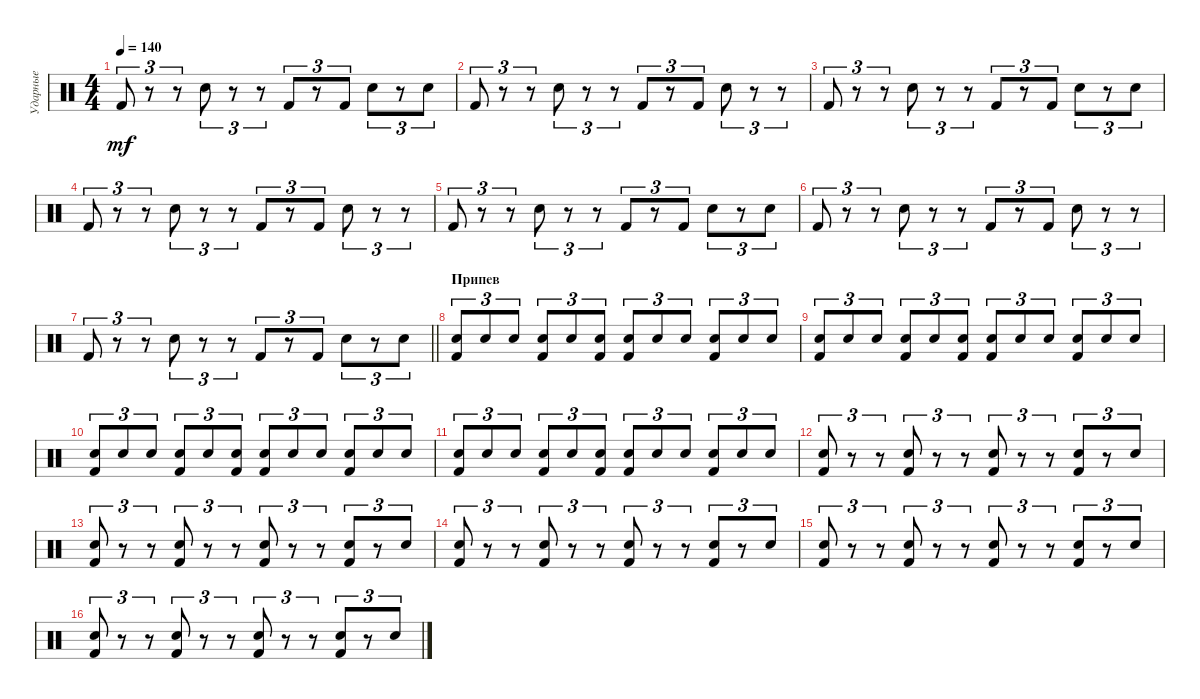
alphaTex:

\track ("Ударные" "Ударные") {instrument percussion}
\staff {score}
\articulation defaults
\ts (4 4)
\tempo 140
\clef neutral
\ks c "Kick (hit) 2".8{tu (3 2) dy mf}
r.8{tu (3 2)} r.8{tu (3 2)} "Electric Snare (hit)".8{tu (3 2)} r.8{tu (3 2)} r.8{tu (3 2)} "Kick (hit) 2".8{tu (3 2)} r.8{tu (3 2)} "Kick (hit) 2".8{tu (3 2)} "Electric Snare (hit)".8{tu (3 2)} r.8{tu (3 2)} "Electric Snare (hit)".8{tu (3 2)} |
"Kick (hit) 2".8{tu (3 2)} r.8{tu (3 2)} r.8{tu (3 2)} "Electric Snare (hit)".8{tu (3 2)} r.8{tu (3 2)} r.8{tu (3 2)} "Kick (hit) 2".8{tu (3 2)} r.8{tu (3 2)} "Kick (hit) 2".8{tu (3 2)} "Electric Snare (hit)".8{tu (3 2)} r.8{tu (3 2)} r.8{tu (3 2)} |
"Kick (hit) 2".8{tu (3 2)} r.8{tu (3 2)} r.8{tu (3 2)} "Electric Snare (hit)".8{tu (3 2)} r.8{tu (3 2)} r.8{tu (3 2)} "Kick (hit) 2".8{tu (3 2)} r.8{tu (3 2)} "Kick (hit) 2".8{tu (3 2)} "Electric Snare (hit)".8{tu (3 2)} r.8{tu (3 2)} "Electric Snare (hit)".8{tu (3 2)} |
"Kick (hit) 2".8{tu (3 2)} r.8{tu (3 2)} r.8{tu (3 2)} "Electric Snare (hit)".8{tu (3 2)} r.8{tu (3 2)} r.8{tu (3 2)} "Kick (hit) 2".8{tu (3 2)} r.8{tu (3 2)} "Kick (hit) 2".8{tu (3 2)} "Electric Snare (hit)".8{tu (3 2)} r.8{tu (3 2)} r.8{tu (3 2)} |
"Kick (hit) 2".8{tu (3 2)} r.8{tu (3 2)} r.8{tu (3 2)} "Electric Snare (hit)".8{tu (3 2)} r.8{tu (3 2)} r.8{tu (3 2)} "Kick (hit) 2".8{tu (3 2)} r.8{tu (3 2)} "Kick (hit) 2".8{tu (3 2)} "Electric Snare (hit)".8{tu (3 2)} r.8{tu (3 2)} "Electric Snare (hit)".8{tu (3 2)} |
"Kick (hit) 2".8{tu (3 2)} r.8{tu (3 2)} r.8{tu (3 2)} "Electric Snare (hit)".8{tu (3 2)} r.8{tu (3 2)} r.8{tu (3 2)} "Kick (hit) 2".8{tu (3 2)} r.8{tu (3 2)} "Kick (hit) 2".8{tu (3 2)} "Electric Snare (hit)".8{tu (3 2)} r.8{tu (3 2)} r.8{tu (3 2)} |
\barLineRight lightlight "Kick (hit) 2".8{tu (3 2)}
r.8{tu (3 2)} r.8{tu (3 2)} "Electric Snare (hit)".8{tu (3 2)} r.8{tu (3 2)} r.8{tu (3 2)} "Kick (hit) 2".8{tu (3 2)} r.8{tu (3 2)} "Kick (hit) 2".8{tu (3 2)} "Electric Snare (hit)".8{tu (3 2)} r.8{tu (3 2)} "Electric Snare (hit)".8{tu (3 2)} |
\section ("" "Припев")
("Electric Snare (hit)" "Kick (hit) 2").8{tu (3 2)} "Electric Snare (hit)".8{tu (3 2)} "Electric Snare (hit)".8{tu (3 2)} ("Electric Snare (hit)" "Kick (hit) 2").8{tu (3 2)} "Electric Snare (hit)".8{tu (3 2)} ("Electric Snare (hit)" "Kick (hit) 2").8{tu (3 2)} ("Electric Snare (hit)" "Kick (hit) 2").8{tu (3 2)} "Electric Snare (hit)".8{tu (3 2)} "Electric Snare (hit)".8{tu (3 2)} ("Electric Snare (hit)" "Kick (hit) 2").8{tu (3 2)} "Electric Snare (hit)".8{tu (3 2)} "Electric Snare (hit)".8{tu (3 2)} |
("Electric Snare (hit)" "Kick (hit) 2").8{tu (3 2)} "Electric Snare (hit)".8{tu (3 2)} "Electric Snare (hit)".8{tu (3 2)} ("Electric Snare (hit)" "Kick (hit) 2").8{tu (3 2)} "Electric Snare (hit)".8{tu (3 2)} ("Electric Snare (hit)" "Kick (hit) 2").8{tu (3 2)} ("Electric Snare (hit)" "Kick (hit) 2").8{tu (3 2)} "Electric Snare (hit)".8{tu (3 2)} "Electric Snare (hit)".8{tu (3 2)} ("Electric Snare (hit)" "Kick (hit) 2").8{tu (3 2)} "Electric Snare (hit)".8{tu (3 2)} "Electric Snare (hit)".8{tu (3 2)} |
("Electric Snare (hit)" "Kick (hit) 2").8{tu (3 2)} "Electric Snare (hit)".8{tu (3 2)} "Electric Snare (hit)".8{tu (3 2)} ("Electric Snare (hit)" "Kick (hit) 2").8{tu (3 2)} "Electric Snare (hit)".8{tu (3 2)} ("Electric Snare (hit)" "Kick (hit) 2").8{tu (3 2)} ("Electric Snare (hit)" "Kick (hit) 2").8{tu (3 2)} "Electric Snare (hit)".8{tu (3 2)} "Electric Snare (hit)".8{tu (3 2)} ("Electric Snare (hit)" "Kick (hit) 2").8{tu (3 2)} "Electric Snare (hit)".8{tu (3 2)} "Electric Snare (hit)".8{tu (3 2)} |
("Electric Snare (hit)" "Kick (hit) 2").8{tu (3 2)} "Electric Snare (hit)".8{tu (3 2)} "Electric Snare (hit)".8{tu (3 2)} ("Electric Snare (hit)" "Kick (hit) 2").8{tu (3 2)} "Electric Snare (hit)".8{tu (3 2)} ("Electric Snare (hit)" "Kick (hit) 2").8{tu (3 2)} ("Electric Snare (hit)" "Kick (hit) 2").8{tu (3 2)} "Electric Snare (hit)".8{tu (3 2)} "Electric Snare (hit)".8{tu (3 2)} ("Electric Snare (hit)" "Kick (hit) 2").8{tu (3 2)} "Electric Snare (hit)".8{tu (3 2)} "Electric Snare (hit)".8{tu (3 2)} |
("Electric Snare (hit)" "Kick (hit) 2").8{tu (3 2)} r.8{tu (3 2)} r.8{tu (3 2)} ("Electric Snare (hit)" "Kick (hit) 2").8{tu (3 2)} r.8{tu (3 2)} r.8{tu (3 2)} ("Electric Snare (hit)" "Kick (hit) 2").8{tu (3 2)} r.8{tu (3 2)} r.8{tu (3 2)} ("Electric Snare (hit)" "Kick (hit) 2").8{tu (3 2)} r.8{tu (3 2)} "Electric Snare (hit)".8{tu (3 2)} |
("Electric Snare (hit)" "Kick (hit) 2").8{tu (3 2)} r.8{tu (3 2)} r.8{tu (3 2)} ("Electric Snare (hit)" "Kick (hit) 2").8{tu (3 2)} r.8{tu (3 2)} r.8{tu (3 2)} ("Electric Snare (hit)" "Kick (hit) 2").8{tu (3 2)} r.8{tu (3 2)} r.8{tu (3 2)} ("Electric Snare (hit)" "Kick (hit) 2").8{tu (3 2)} r.8{tu (3 2)} "Electric Snare (hit)".8{tu (3 2)} |
("Electric Snare (hit)" "Kick (hit) 2").8{tu (3 2)} r.8{tu (3 2)} r.8{tu (3 2)} ("Electric Snare (hit)" "Kick (hit) 2").8{tu (3 2)} r.8{tu (3 2)} r.8{tu (3 2)} ("Electric Snare (hit)" "Kick (hit) 2").8{tu (3 2)} r.8{tu (3 2)} r.8{tu (3 2)} ("Electric Snare (hit)" "Kick (hit) 2").8{tu (3 2)} r.8{tu (3 2)} "Electric Snare (hit)".8{tu (3 2)} |
("Electric Snare (hit)" "Kick (hit) 2").8{tu (3 2)} r.8{tu (3 2)} r.8{tu (3 2)} ("Electric Snare (hit)" "Kick (hit) 2").8{tu (3 2)} r.8{tu (3 2)} r.8{tu (3 2)} ("Electric Snare (hit)" "Kick (hit) 2").8{tu (3 2)} r.8{tu (3 2)} r.8{tu (3 2)} ("Electric Snare (hit)" "Kick (hit) 2").8{tu (3 2)} r.8{tu (3 2)} "Electric Snare (hit)".8{tu (3 2)} |
("Electric Snare (hit)" "Kick (hit) 2").8{tu (3 2)} r.8{tu (3 2)} r.8{tu (3 2)} ("Electric Snare (hit)" "Kick (hit) 2").8{tu (3 2)} r.8{tu (3 2)} r.8{tu (3 2)} ("Electric Snare (hit)" "Kick (hit) 2").8{tu (3 2)} r.8{tu (3 2)} r.8{tu (3 2)} ("Electric Snare (hit)" "Kick (hit) 2").8{tu (3 2)} r.8{tu (3 2)} "Electric Snare (hit)".8{tu (3 2)}
